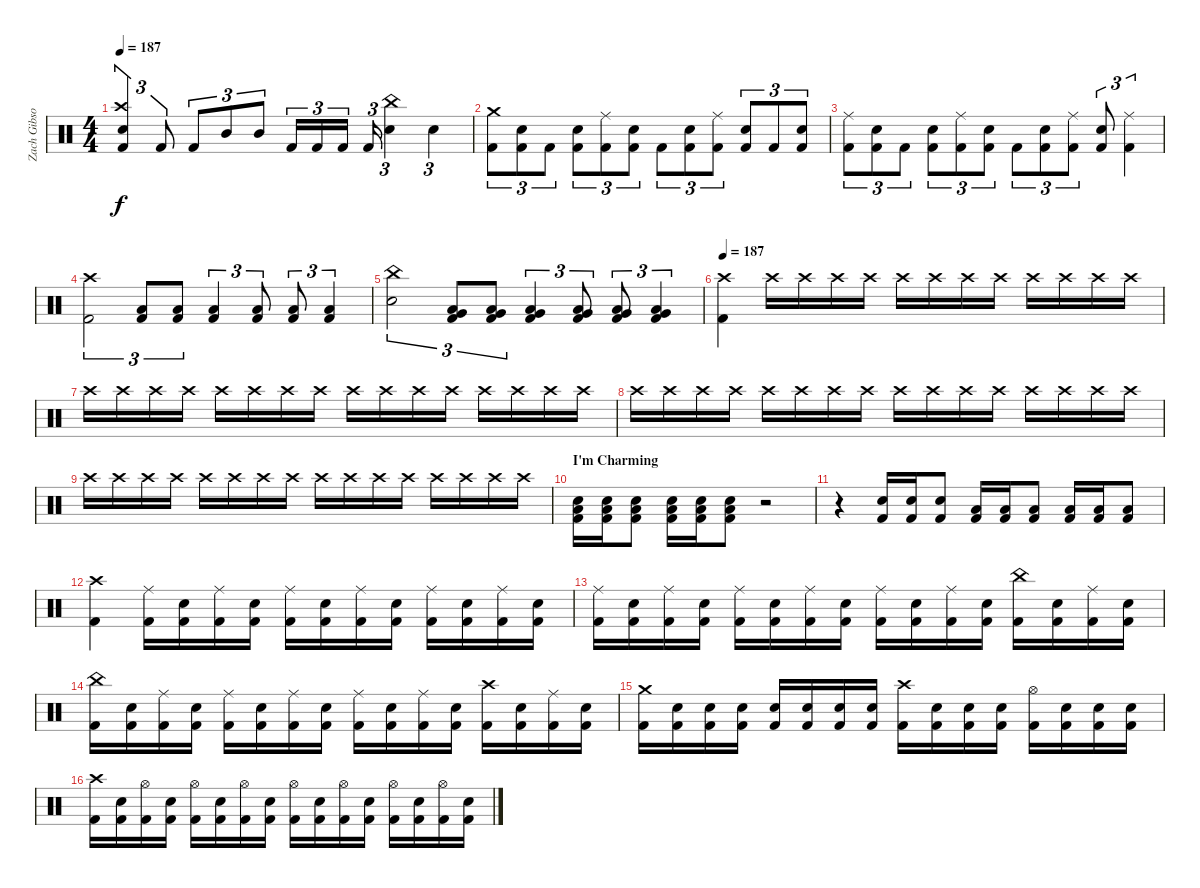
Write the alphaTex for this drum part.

\track ("Zach Gibson (Ex-Drums)" "Zach Gibso") {instrument percussion}
\staff {score}
\articulation defaults
\ts (4 4)
\tempo 187
\clef neutral
\ks c
("Snare (hit) 2" "Crash high (hit)" "Kick (hit) 2").4{tu (3 2) dy f} "Kick (hit) 2".8{tu (3 2)} "Kick (hit) 2".8{tu (3 2)} "Mid Tom (hit)".8{tu (3 2)} "Mid Tom (hit)".8{tu (3 2)} "Kick (hit) 2".16{tu (3 2)} "Kick (hit) 2".16{tu (3 2)} "Kick (hit) 2".16{tu (3 2)} "Kick (hit) 2".16{tu (3 2)} ("China (hit)" "Snare (hit) 2").4{tu (3 2)} "Snare (hit) 2".4{tu (3 2)} |
("Crash medium (hit)" "Kick (hit) 2").8{tu (3 2)} ("Snare (hit) 2" "Kick (hit) 2").8{tu (3 2)} "Kick (hit) 2".8{tu (3 2)} ("Snare (hit) 2" "Kick (hit) 2").8{tu (3 2)} ("Ride (middle)" "Kick (hit) 2").8{tu (3 2)} ("Snare (hit) 2" "Kick (hit) 2").8{tu (3 2)} "Kick (hit) 2".8{tu (3 2)} ("Snare (hit) 2" "Kick (hit) 2").8{tu (3 2)} ("Ride (middle)" "Kick (hit) 2").8{tu (3 2)} ("Snare (hit) 2" "Kick (hit) 2").8{tu (3 2)} "Kick (hit) 2".8{tu (3 2)} ("Snare (hit) 2" "Kick (hit) 2").8{tu (3 2)} |
("Ride (middle)" "Kick (hit) 2").8{tu (3 2)} ("Snare (hit) 2" "Kick (hit) 2").8{tu (3 2)} "Kick (hit) 2".8{tu (3 2)} ("Snare (hit) 2" "Kick (hit) 2").8{tu (3 2)} ("Ride (middle)" "Kick (hit) 2").8{tu (3 2)} ("Snare (hit) 2" "Kick (hit) 2").8{tu (3 2)} "Kick (hit) 2".8{tu (3 2)} ("Snare (hit) 2" "Kick (hit) 2").8{tu (3 2)} ("Ride (middle)" "Kick (hit) 2").8{tu (3 2)} ("Snare (hit) 2" "Kick (hit) 2").8{tu (3 2)} ("Ride (middle)" "Kick (hit) 2").4{tu (3 2)} |
("Crash high (hit)" "Kick (hit) 2").2{tu (3 2)} ("Low Floor Tom (hit)" "Kick (hit) 2").8{tu (3 2)} ("Low Floor Tom (hit)" "Kick (hit) 2").8{tu (3 2)} ("Low Floor Tom (hit)" "Kick (hit) 2").4{tu (3 2)} ("Low Floor Tom (hit)" "Kick (hit) 2").8{tu (3 2)} ("Low Floor Tom (hit)" "Kick (hit) 2").8{tu (3 2)} ("Low Floor Tom (hit)" "Kick (hit) 2").4{tu (3 2)} |
("China (hit)" "Snare (hit) 2").2{tu (3 2)} ("Very Low Tom (hit)" "Low Floor Tom (hit)" "Kick (hit) 2").8{tu (3 2)} ("Very Low Tom (hit)" "Low Floor Tom (hit)" "Kick (hit) 2").8{tu (3 2)} ("Very Low Tom (hit)" "Low Floor Tom (hit)" "Kick (hit) 2").4{tu (3 2)} ("Very Low Tom (hit)" "Low Floor Tom (hit)" "Kick (hit) 2").8{tu (3 2)} ("Very Low Tom (hit)" "Low Floor Tom (hit)" "Kick (hit) 2").8{tu (3 2)} ("Very Low Tom (hit)" "Low Floor Tom (hit)" "Kick (hit) 2").4{tu (3 2)} |
\tempo 187
("Crash high (hit)" "Kick (hit) 2").4 "Crash high (hit)".16 "Crash high (hit)".16 "Crash high (hit)".16 "Crash high (hit)".16 "Crash high (hit)".16 "Crash high (hit)".16 "Crash high (hit)".16 "Crash high (hit)".16 "Crash high (hit)".16 "Crash high (hit)".16 "Crash high (hit)".16 "Crash high (hit)".16 |
"Crash high (hit)".16 "Crash high (hit)".16 "Crash high (hit)".16 "Crash high (hit)".16 "Crash high (hit)".16 "Crash high (hit)".16 "Crash high (hit)".16 "Crash high (hit)".16 "Crash high (hit)".16 "Crash high (hit)".16 "Crash high (hit)".16 "Crash high (hit)".16 "Crash high (hit)".16 "Crash high (hit)".16 "Crash high (hit)".16 "Crash high (hit)".16 |
"Crash high (hit)".16 "Crash high (hit)".16 "Crash high (hit)".16 "Crash high (hit)".16 "Crash high (hit)".16 "Crash high (hit)".16 "Crash high (hit)".16 "Crash high (hit)".16 "Crash high (hit)".16 "Crash high (hit)".16 "Crash high (hit)".16 "Crash high (hit)".16 "Crash high (hit)".16 "Crash high (hit)".16 "Crash high (hit)".16 "Crash high (hit)".16 |
"Crash high (hit)".16 "Crash high (hit)".16 "Crash high (hit)".16 "Crash high (hit)".16 "Crash high (hit)".16 "Crash high (hit)".16 "Crash high (hit)".16 "Crash high (hit)".16 "Crash high (hit)".16 "Crash high (hit)".16 "Crash high (hit)".16 "Crash high (hit)".16 "Crash high (hit)".16 "Crash high (hit)".16 "Crash high (hit)".16 "Crash high (hit)".16 |
\section ("" "I'm Charming")
("Low Floor Tom (hit)" "Snare (hit) 2" "Kick (hit) 2").16 ("Low Floor Tom (hit)" "Snare (hit) 2" "Kick (hit) 2").16 ("Low Floor Tom (hit)" "Snare (hit) 2" "Kick (hit) 2").8 ("Low Floor Tom (hit)" "Snare (hit) 2" "Kick (hit) 2").16 ("Low Floor Tom (hit)" "Snare (hit) 2" "Kick (hit) 2").16 ("Low Floor Tom (hit)" "Snare (hit) 2" "Kick (hit) 2").8 r.2 |
r.4 ("Snare (hit) 2" "Kick (hit) 2").16 ("Snare (hit) 2" "Kick (hit) 2").16 ("Snare (hit) 2" "Kick (hit) 2").8 ("Low Tom (hit)" "Kick (hit) 2").16 ("Low Tom (hit)" "Kick (hit) 2").16 ("Low Tom (hit)" "Kick (hit) 2").8 ("Low Floor Tom (hit)" "Kick (hit) 2").16 ("Low Floor Tom (hit)" "Kick (hit) 2").16 ("Low Floor Tom (hit)" "Kick (hit) 2").8 |
("Crash high (hit)" "Kick (hit) 2").4 ("Ride (middle)" "Kick (hit) 2").16 ("Snare (hit) 2" "Kick (hit) 2").16 ("Ride (middle)" "Kick (hit) 2").16 ("Snare (hit) 2" "Kick (hit) 2").16 ("Ride (middle)" "Kick (hit) 2").16 ("Snare (hit) 2" "Kick (hit) 2").16 ("Ride (middle)" "Kick (hit) 2").16 ("Snare (hit) 2" "Kick (hit) 2").16 ("Ride (middle)" "Kick (hit) 2").16 ("Snare (hit) 2" "Kick (hit) 2").16 ("Ride (middle)" "Kick (hit) 2").16 ("Snare (hit) 2" "Kick (hit) 2").16 |
("Ride (middle)" "Kick (hit) 2").16 ("Snare (hit) 2" "Kick (hit) 2").16 ("Ride (middle)" "Kick (hit) 2").16 ("Snare (hit) 2" "Kick (hit) 2").16 ("Ride (middle)" "Kick (hit) 2").16 ("Snare (hit) 2" "Kick (hit) 2").16 ("Ride (middle)" "Kick (hit) 2").16 ("Snare (hit) 2" "Kick (hit) 2").16 ("Ride (middle)" "Kick (hit) 2").16 ("Snare (hit) 2" "Kick (hit) 2").16 ("Ride (middle)" "Kick (hit) 2").16 ("Snare (hit) 2" "Kick (hit) 2").16 ("China (hit)" "Kick (hit) 2").16 ("Snare (hit) 2" "Kick (hit) 2").16 ("Ride (middle)" "Kick (hit) 2").16 ("Snare (hit) 2" "Kick (hit) 2").16 |
("China (hit)" "Kick (hit) 2").16 ("Snare (hit) 2" "Kick (hit) 2").16 ("Ride (middle)" "Kick (hit) 2").16 ("Snare (hit) 2" "Kick (hit) 2").16 ("Ride (middle)" "Kick (hit) 2").16 ("Snare (hit) 2" "Kick (hit) 2").16 ("Ride (middle)" "Kick (hit) 2").16 ("Snare (hit) 2" "Kick (hit) 2").16 ("Ride (middle)" "Kick (hit) 2").16 ("Snare (hit) 2" "Kick (hit) 2").16 ("Ride (middle)" "Kick (hit) 2").16 ("Snare (hit) 2" "Kick (hit) 2").16 ("Crash high (hit)" "Kick (hit) 2").16 ("Snare (hit) 2" "Kick (hit) 2").16 ("Ride (middle)" "Kick (hit) 2").16 ("Snare (hit) 2" "Kick (hit) 2").16 |
("Crash medium (hit)" "Kick (hit) 2").16 ("Snare (hit) 2" "Kick (hit) 2").16 ("Snare (hit) 2" "Kick (hit) 2").16 ("Snare (hit) 2" "Kick (hit) 2").16 ("Snare (hit) 2" "Kick (hit) 2").16 ("Snare (hit) 2" "Kick (hit) 2").16 ("Snare (hit) 2" "Kick (hit) 2").16 ("Snare (hit) 2" "Kick (hit) 2").16 ("Crash high (hit)" "Kick (hit) 2").16 ("Snare (hit) 2" "Kick (hit) 2").16 ("Snare (hit) 2" "Kick (hit) 2").16 ("Snare (hit) 2" "Kick (hit) 2").16 ("Hi-Hat (open)" "Kick (hit) 2").16 ("Snare (hit) 2" "Kick (hit) 2").16 ("Snare (hit) 2" "Kick (hit) 2").16 ("Snare (hit) 2" "Kick (hit) 2").16 |
("Crash high (hit)" "Kick (hit) 2").16 ("Snare (hit) 2" "Kick (hit) 2").16 ("Hi-Hat (open)" "Kick (hit) 2").16 ("Snare (hit) 2" "Kick (hit) 2").16 ("Hi-Hat (open)" "Kick (hit) 2").16 ("Snare (hit) 2" "Kick (hit) 2").16 ("Hi-Hat (open)" "Kick (hit) 2").16 ("Snare (hit) 2" "Kick (hit) 2").16 ("Hi-Hat (open)" "Kick (hit) 2").16 ("Snare (hit) 2" "Kick (hit) 2").16 ("Hi-Hat (open)" "Kick (hit) 2").16 ("Snare (hit) 2" "Kick (hit) 2").16 ("Hi-Hat (open)" "Kick (hit) 2").16 ("Snare (hit) 2" "Kick (hit) 2").16 ("Hi-Hat (open)" "Kick (hit) 2").16 ("Snare (hit) 2" "Kick (hit) 2").16
